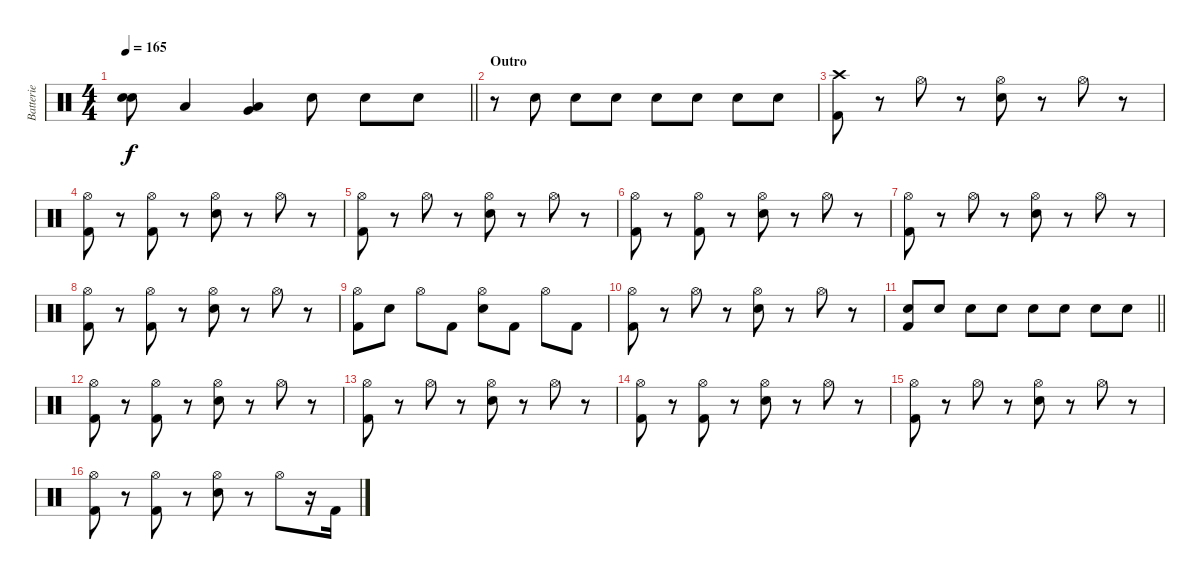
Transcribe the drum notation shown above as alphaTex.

\track ("Batterie" "Batterie") {instrument percussion}
\staff {score}
\articulation defaults
\ts (4 4)
\tempo 165
\clef neutral
\barLineRight lightlight
\ks c
("Electric Snare (hit)" "Electric Snare (hit)").8{bu 120 dy f} "Low Tom (hit)".4 ("Low Tom (hit)" "Very Low Tom (hit)").4{bu 120} "Electric Snare (hit)".8 "Electric Snare (hit)".8 "Electric Snare (hit)".8 |
\section ("" "Outro")
r.8 "Electric Snare (hit)".8 "Electric Snare (hit)".8 "Electric Snare (hit)".8 "Electric Snare (hit)".8 "Electric Snare (hit)".8 "Electric Snare (hit)".8 "Electric Snare (hit)".8 |
("Crash high (hit)" "Kick (hit) 2").8 r.8 "Hi-Hat (open)".8 r.8 ("Hi-Hat (open)" "Electric Snare (hit)").8 r.8 "Hi-Hat (open)".8 r.8 |
("Hi-Hat (open)" "Kick (hit) 2").8 r.8 ("Hi-Hat (open)" "Kick (hit) 2").8 r.8 ("Hi-Hat (open)" "Electric Snare (hit)").8 r.8 "Hi-Hat (open)".8 r.8 |
("Hi-Hat (open)" "Kick (hit) 2").8 r.8 "Hi-Hat (open)".8 r.8 ("Hi-Hat (open)" "Electric Snare (hit)").8 r.8 "Hi-Hat (open)".8 r.8 |
("Hi-Hat (open)" "Kick (hit) 2").8 r.8 ("Hi-Hat (open)" "Kick (hit) 2").8 r.8 ("Hi-Hat (open)" "Electric Snare (hit)").8 r.8 "Hi-Hat (open)".8 r.8 |
("Hi-Hat (open)" "Kick (hit) 2").8 r.8 "Hi-Hat (open)".8 r.8 ("Hi-Hat (open)" "Electric Snare (hit)").8 r.8 "Hi-Hat (open)".8 r.8 |
("Hi-Hat (open)" "Kick (hit) 2").8 r.8 ("Hi-Hat (open)" "Kick (hit) 2").8 r.8 ("Hi-Hat (open)" "Electric Snare (hit)").8 r.8 "Hi-Hat (open)".8 r.8 |
("Hi-Hat (open)" "Kick (hit) 2").8 "Electric Snare (hit)".8 "Hi-Hat (open)".8 "Kick (hit) 2".8 ("Hi-Hat (open)" "Electric Snare (hit)").8 "Kick (hit) 2".8 "Hi-Hat (open)".8 "Kick (hit) 2".8 |
("Hi-Hat (open)" "Kick (hit) 2").8 r.8 "Hi-Hat (open)".8 r.8 ("Hi-Hat (open)" "Electric Snare (hit)").8 r.8 "Hi-Hat (open)".8 r.8 |
\barLineRight lightlight
("Electric Snare (hit)" "Kick (hit) 2").8 "Electric Snare (hit)".8 "Electric Snare (hit)".8 "Electric Snare (hit)".8 "Electric Snare (hit)".8 "Electric Snare (hit)".8 "Electric Snare (hit)".8 "Electric Snare (hit)".8 |
("Hi-Hat (open)" "Kick (hit) 2").8 r.8 ("Hi-Hat (open)" "Kick (hit) 2").8 r.8 ("Hi-Hat (open)" "Electric Snare (hit)").8 r.8 "Hi-Hat (open)".8 r.8 |
("Hi-Hat (open)" "Kick (hit) 2").8 r.8 "Hi-Hat (open)".8 r.8 ("Hi-Hat (open)" "Electric Snare (hit)").8 r.8 "Hi-Hat (open)".8 r.8 |
("Hi-Hat (open)" "Kick (hit) 2").8 r.8 ("Hi-Hat (open)" "Kick (hit) 2").8 r.8 ("Hi-Hat (open)" "Electric Snare (hit)").8 r.8 "Hi-Hat (open)".8 r.8 |
("Hi-Hat (open)" "Kick (hit) 2").8 r.8 "Hi-Hat (open)".8 r.8 ("Hi-Hat (open)" "Electric Snare (hit)").8 r.8 "Hi-Hat (open)".8 r.8 |
("Hi-Hat (open)" "Kick (hit) 2").8 r.8 ("Hi-Hat (open)" "Kick (hit) 2").8 r.8 ("Hi-Hat (open)" "Electric Snare (hit)").8 r.8 "Hi-Hat (open)".8 r.16 "Kick (hit) 2".16
